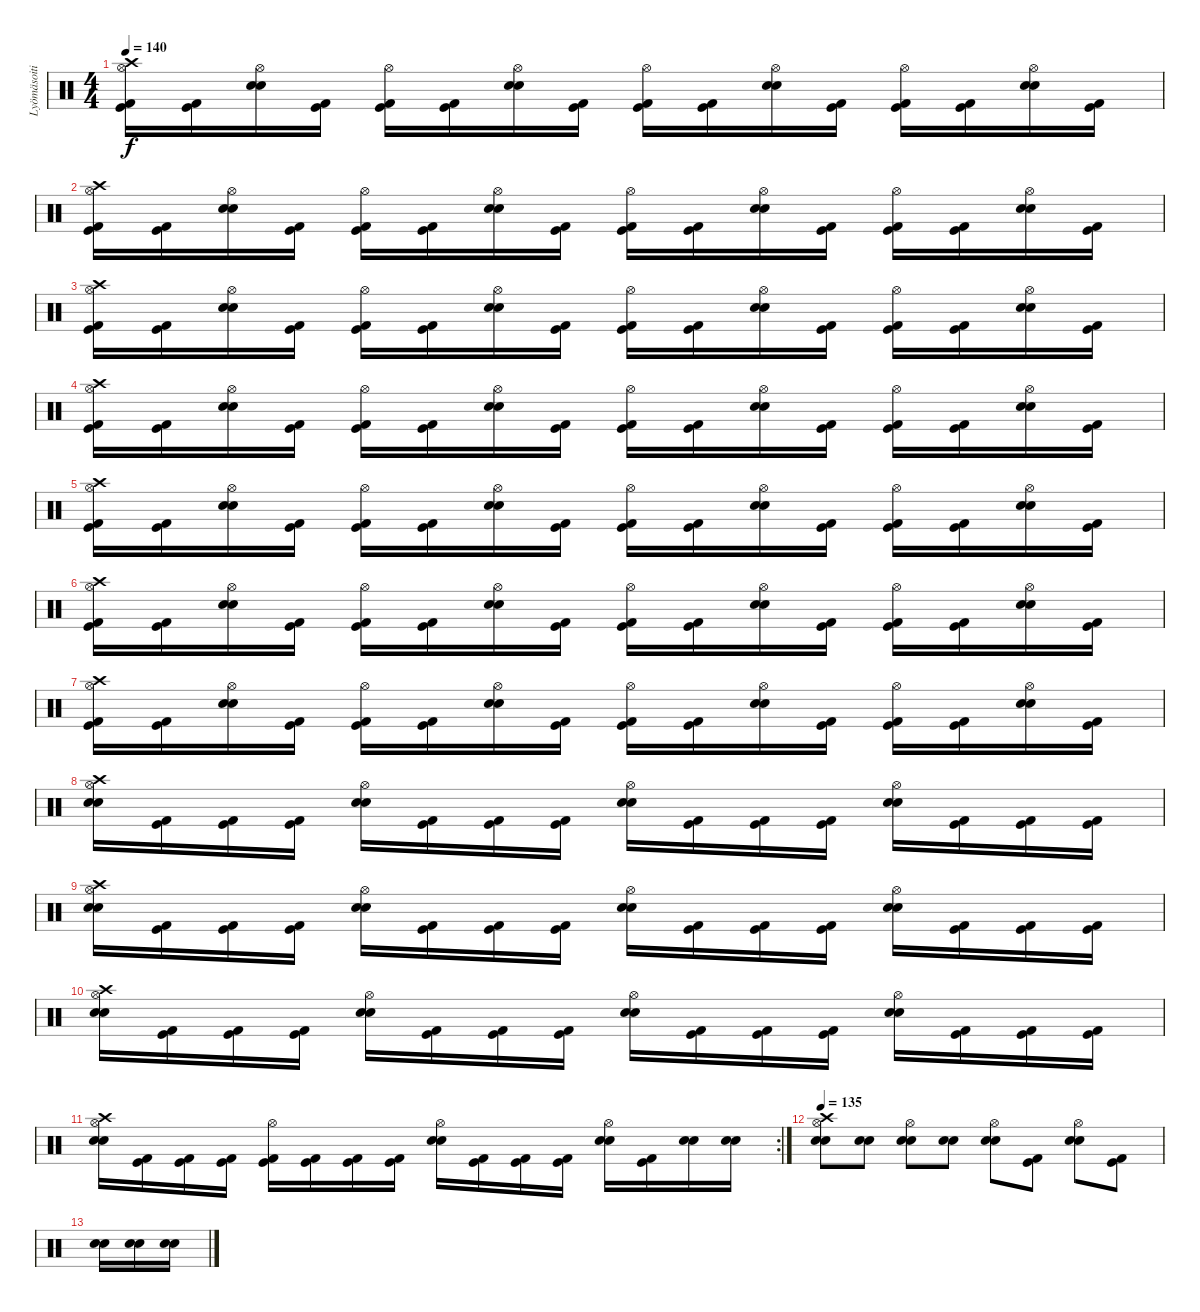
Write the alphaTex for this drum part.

\track ("Lyömäsoitin" "Lyömäsoiti") {instrument percussion}
\staff {score}
\articulation defaults
\ts (4 4)
\tempo 140
\clef neutral
\ks c
("Crash high (hit)" "Hi-Hat (open)" "Kick (hit) 2" "Kick (hit)").16{dy f} ("Kick (hit) 2" "Kick (hit)").16 ("Snare (hit) 2" "Hi-Hat (open)" "Electric Snare (hit)").16 ("Kick (hit) 2" "Kick (hit)").16 ("Hi-Hat (open)" "Kick (hit) 2" "Kick (hit)").16 ("Kick (hit) 2" "Kick (hit)").16 ("Snare (hit) 2" "Hi-Hat (open)" "Electric Snare (hit)").16 ("Kick (hit) 2" "Kick (hit)").16 ("Hi-Hat (open)" "Kick (hit) 2" "Kick (hit)").16 ("Kick (hit) 2" "Kick (hit)").16 ("Snare (hit) 2" "Hi-Hat (open)" "Electric Snare (hit)").16 ("Kick (hit) 2" "Kick (hit)").16 ("Hi-Hat (open)" "Kick (hit) 2" "Kick (hit)").16 ("Kick (hit) 2" "Kick (hit)").16 ("Snare (hit) 2" "Hi-Hat (open)" "Electric Snare (hit)").16 ("Kick (hit) 2" "Kick (hit)").16 |
("Crash high (hit)" "Hi-Hat (open)" "Kick (hit) 2" "Kick (hit)").16 ("Kick (hit) 2" "Kick (hit)").16 ("Snare (hit) 2" "Hi-Hat (open)" "Electric Snare (hit)").16 ("Kick (hit) 2" "Kick (hit)").16 ("Hi-Hat (open)" "Kick (hit) 2" "Kick (hit)").16 ("Kick (hit) 2" "Kick (hit)").16 ("Snare (hit) 2" "Hi-Hat (open)" "Electric Snare (hit)").16 ("Kick (hit) 2" "Kick (hit)").16 ("Hi-Hat (open)" "Kick (hit) 2" "Kick (hit)").16 ("Kick (hit) 2" "Kick (hit)").16 ("Snare (hit) 2" "Hi-Hat (open)" "Electric Snare (hit)").16 ("Kick (hit) 2" "Kick (hit)").16 ("Hi-Hat (open)" "Kick (hit) 2" "Kick (hit)").16 ("Kick (hit) 2" "Kick (hit)").16 ("Snare (hit) 2" "Hi-Hat (open)" "Electric Snare (hit)").16 ("Kick (hit) 2" "Kick (hit)").16 |
("Crash high (hit)" "Hi-Hat (open)" "Kick (hit) 2" "Kick (hit)").16 ("Kick (hit) 2" "Kick (hit)").16 ("Snare (hit) 2" "Hi-Hat (open)" "Electric Snare (hit)").16 ("Kick (hit) 2" "Kick (hit)").16 ("Hi-Hat (open)" "Kick (hit) 2" "Kick (hit)").16 ("Kick (hit) 2" "Kick (hit)").16 ("Snare (hit) 2" "Hi-Hat (open)" "Electric Snare (hit)").16 ("Kick (hit) 2" "Kick (hit)").16 ("Hi-Hat (open)" "Kick (hit) 2" "Kick (hit)").16 ("Kick (hit) 2" "Kick (hit)").16 ("Snare (hit) 2" "Hi-Hat (open)" "Electric Snare (hit)").16 ("Kick (hit) 2" "Kick (hit)").16 ("Hi-Hat (open)" "Kick (hit) 2" "Kick (hit)").16 ("Kick (hit) 2" "Kick (hit)").16 ("Snare (hit) 2" "Hi-Hat (open)" "Electric Snare (hit)").16 ("Kick (hit) 2" "Kick (hit)").16 |
("Crash high (hit)" "Hi-Hat (open)" "Kick (hit) 2" "Kick (hit)").16 ("Kick (hit) 2" "Kick (hit)").16 ("Snare (hit) 2" "Hi-Hat (open)" "Electric Snare (hit)").16 ("Kick (hit) 2" "Kick (hit)").16 ("Hi-Hat (open)" "Kick (hit) 2" "Kick (hit)").16 ("Kick (hit) 2" "Kick (hit)").16 ("Snare (hit) 2" "Hi-Hat (open)" "Electric Snare (hit)").16 ("Kick (hit) 2" "Kick (hit)").16 ("Hi-Hat (open)" "Kick (hit) 2" "Kick (hit)").16 ("Kick (hit) 2" "Kick (hit)").16 ("Snare (hit) 2" "Hi-Hat (open)" "Electric Snare (hit)").16 ("Kick (hit) 2" "Kick (hit)").16 ("Hi-Hat (open)" "Kick (hit) 2" "Kick (hit)").16 ("Kick (hit) 2" "Kick (hit)").16 ("Snare (hit) 2" "Hi-Hat (open)" "Electric Snare (hit)").16 ("Kick (hit) 2" "Kick (hit)").16 |
("Crash high (hit)" "Hi-Hat (open)" "Kick (hit) 2" "Kick (hit)").16 ("Kick (hit) 2" "Kick (hit)").16 ("Snare (hit) 2" "Hi-Hat (open)" "Electric Snare (hit)").16 ("Kick (hit) 2" "Kick (hit)").16 ("Hi-Hat (open)" "Kick (hit) 2" "Kick (hit)").16 ("Kick (hit) 2" "Kick (hit)").16 ("Snare (hit) 2" "Hi-Hat (open)" "Electric Snare (hit)").16 ("Kick (hit) 2" "Kick (hit)").16 ("Hi-Hat (open)" "Kick (hit) 2" "Kick (hit)").16 ("Kick (hit) 2" "Kick (hit)").16 ("Snare (hit) 2" "Hi-Hat (open)" "Electric Snare (hit)").16 ("Kick (hit) 2" "Kick (hit)").16 ("Hi-Hat (open)" "Kick (hit) 2" "Kick (hit)").16 ("Kick (hit) 2" "Kick (hit)").16 ("Snare (hit) 2" "Hi-Hat (open)" "Electric Snare (hit)").16 ("Kick (hit) 2" "Kick (hit)").16 |
("Crash high (hit)" "Hi-Hat (open)" "Kick (hit) 2" "Kick (hit)").16 ("Kick (hit) 2" "Kick (hit)").16 ("Snare (hit) 2" "Hi-Hat (open)" "Electric Snare (hit)").16 ("Kick (hit) 2" "Kick (hit)").16 ("Hi-Hat (open)" "Kick (hit) 2" "Kick (hit)").16 ("Kick (hit) 2" "Kick (hit)").16 ("Snare (hit) 2" "Hi-Hat (open)" "Electric Snare (hit)").16 ("Kick (hit) 2" "Kick (hit)").16 ("Hi-Hat (open)" "Kick (hit) 2" "Kick (hit)").16 ("Kick (hit) 2" "Kick (hit)").16 ("Snare (hit) 2" "Hi-Hat (open)" "Electric Snare (hit)").16 ("Kick (hit) 2" "Kick (hit)").16 ("Hi-Hat (open)" "Kick (hit) 2" "Kick (hit)").16 ("Kick (hit) 2" "Kick (hit)").16 ("Snare (hit) 2" "Hi-Hat (open)" "Electric Snare (hit)").16 ("Kick (hit) 2" "Kick (hit)").16 |
("Crash high (hit)" "Hi-Hat (open)" "Kick (hit) 2" "Kick (hit)").16 ("Kick (hit) 2" "Kick (hit)").16 ("Snare (hit) 2" "Hi-Hat (open)" "Electric Snare (hit)").16 ("Kick (hit) 2" "Kick (hit)").16 ("Hi-Hat (open)" "Kick (hit) 2" "Kick (hit)").16 ("Kick (hit) 2" "Kick (hit)").16 ("Snare (hit) 2" "Hi-Hat (open)" "Electric Snare (hit)").16 ("Kick (hit) 2" "Kick (hit)").16 ("Hi-Hat (open)" "Kick (hit) 2" "Kick (hit)").16 ("Kick (hit) 2" "Kick (hit)").16 ("Snare (hit) 2" "Hi-Hat (open)" "Electric Snare (hit)").16 ("Kick (hit) 2" "Kick (hit)").16 ("Hi-Hat (open)" "Kick (hit) 2" "Kick (hit)").16 ("Kick (hit) 2" "Kick (hit)").16 ("Snare (hit) 2" "Hi-Hat (open)" "Electric Snare (hit)").16 ("Kick (hit) 2" "Kick (hit)").16 |
("Crash high (hit)" "Hi-Hat (open)" "Snare (hit) 2" "Electric Snare (hit)").16 ("Kick (hit) 2" "Kick (hit)").16 ("Kick (hit) 2" "Kick (hit)").16 ("Kick (hit) 2" "Kick (hit)").16 ("Hi-Hat (open)" "Snare (hit) 2" "Electric Snare (hit)").16 ("Kick (hit) 2" "Kick (hit)").16 ("Kick (hit) 2" "Kick (hit)").16 ("Kick (hit) 2" "Kick (hit)").16 ("Hi-Hat (open)" "Snare (hit) 2" "Electric Snare (hit)").16 ("Kick (hit) 2" "Kick (hit)").16 ("Kick (hit) 2" "Kick (hit)").16 ("Kick (hit) 2" "Kick (hit)").16 ("Hi-Hat (open)" "Snare (hit) 2" "Electric Snare (hit)").16 ("Kick (hit) 2" "Kick (hit)").16 ("Kick (hit) 2" "Kick (hit)").16 ("Kick (hit) 2" "Kick (hit)").16 |
("Crash high (hit)" "Hi-Hat (open)" "Snare (hit) 2" "Electric Snare (hit)").16 ("Kick (hit) 2" "Kick (hit)").16 ("Kick (hit) 2" "Kick (hit)").16 ("Kick (hit) 2" "Kick (hit)").16 ("Hi-Hat (open)" "Snare (hit) 2" "Electric Snare (hit)").16 ("Kick (hit) 2" "Kick (hit)").16 ("Kick (hit) 2" "Kick (hit)").16 ("Kick (hit) 2" "Kick (hit)").16 ("Hi-Hat (open)" "Snare (hit) 2" "Electric Snare (hit)").16 ("Kick (hit) 2" "Kick (hit)").16 ("Kick (hit) 2" "Kick (hit)").16 ("Kick (hit) 2" "Kick (hit)").16 ("Hi-Hat (open)" "Snare (hit) 2" "Electric Snare (hit)").16 ("Kick (hit) 2" "Kick (hit)").16 ("Kick (hit) 2" "Kick (hit)").16 ("Kick (hit) 2" "Kick (hit)").16 |
("Crash high (hit)" "Hi-Hat (open)" "Snare (hit) 2" "Electric Snare (hit)").16 ("Kick (hit) 2" "Kick (hit)").16 ("Kick (hit) 2" "Kick (hit)").16 ("Kick (hit) 2" "Kick (hit)").16 ("Hi-Hat (open)" "Snare (hit) 2" "Electric Snare (hit)").16 ("Kick (hit) 2" "Kick (hit)").16 ("Kick (hit) 2" "Kick (hit)").16 ("Kick (hit) 2" "Kick (hit)").16 ("Hi-Hat (open)" "Snare (hit) 2" "Electric Snare (hit)").16 ("Kick (hit) 2" "Kick (hit)").16 ("Kick (hit) 2" "Kick (hit)").16 ("Kick (hit) 2" "Kick (hit)").16 ("Hi-Hat (open)" "Snare (hit) 2" "Electric Snare (hit)").16 ("Kick (hit) 2" "Kick (hit)").16 ("Kick (hit) 2" "Kick (hit)").16 ("Kick (hit) 2" "Kick (hit)").16 |
\rc 2
("Crash high (hit)" "Hi-Hat (open)" "Electric Snare (hit)" "Snare (hit) 2").16 ("Kick (hit) 2" "Kick (hit)").16 ("Kick (hit) 2" "Kick (hit)").16 ("Kick (hit) 2" "Kick (hit)").16 ("Hi-Hat (open)" "Kick (hit) 2" "Kick (hit)").16 ("Kick (hit) 2" "Kick (hit)").16 ("Kick (hit) 2" "Kick (hit)").16 ("Kick (hit) 2" "Kick (hit)").16 ("Hi-Hat (open)" "Electric Snare (hit)" "Snare (hit) 2").16 ("Kick (hit) 2" "Kick (hit)").16 ("Kick (hit) 2" "Kick (hit)").16 ("Kick (hit) 2" "Kick (hit)").16 ("Hi-Hat (open)" "Snare (hit) 2" "Snare (hit) 2").16 ("Kick (hit) 2" "Kick (hit)").16 ("Snare (hit) 2" "Electric Snare (hit)").16 ("Electric Snare (hit)" "Snare (hit) 2").16 |
\tempo 135
("Crash high (hit)" "Hi-Hat (open)" "Electric Snare (hit)" "Snare (hit) 2").8 ("Electric Snare (hit)" "Snare (hit) 2").8 ("Hi-Hat (open)" "Electric Snare (hit)" "Snare (hit) 2").8 ("Electric Snare (hit)" "Snare (hit) 2").8 ("Hi-Hat (open)" "Electric Snare (hit)" "Snare (hit) 2").8 ("Kick (hit) 2" "Kick (hit)").8 ("Hi-Hat (open)" "Electric Snare (hit)" "Snare (hit) 2").8 ("Kick (hit) 2" "Kick (hit)").8 |
("Snare (hit) 2" "Electric Snare (hit)").16 ("Snare (hit) 2" "Electric Snare (hit)").16 ("Snare (hit) 2" "Electric Snare (hit)").16
